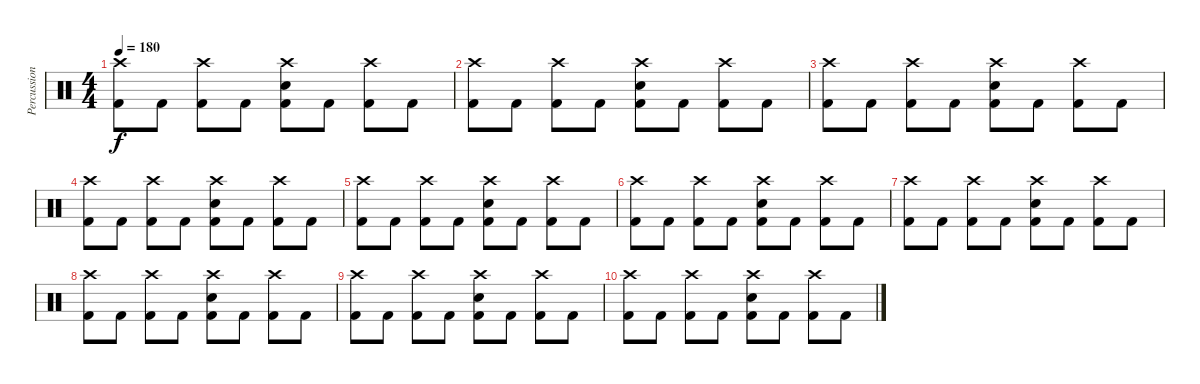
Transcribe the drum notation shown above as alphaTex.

\track ("Percussion" "Percussion") {instrument percussion}
\staff {score}
\articulation defaults
\ts (4 4)
\tempo 180
\clef neutral
\ks c
("Crash high (hit)" "Kick (hit) 2").8{dy f} "Kick (hit) 2".8 ("Crash high (hit)" "Kick (hit) 2").8 "Kick (hit) 2".8 ("Crash high (hit)" "Electric Snare (hit)" "Kick (hit) 2").8 "Kick (hit) 2".8 ("Crash high (hit)" "Kick (hit) 2").8 "Kick (hit) 2".8 |
("Crash high (hit)" "Kick (hit) 2").8 "Kick (hit) 2".8 ("Crash high (hit)" "Kick (hit) 2").8 "Kick (hit) 2".8 ("Crash high (hit)" "Electric Snare (hit)" "Kick (hit) 2").8 "Kick (hit) 2".8 ("Crash high (hit)" "Kick (hit) 2").8 "Kick (hit) 2".8 |
("Crash high (hit)" "Kick (hit) 2").8 "Kick (hit) 2".8 ("Crash high (hit)" "Kick (hit) 2").8 "Kick (hit) 2".8 ("Crash high (hit)" "Electric Snare (hit)" "Kick (hit) 2").8 "Kick (hit) 2".8 ("Crash high (hit)" "Kick (hit) 2").8 "Kick (hit) 2".8 |
("Crash high (hit)" "Kick (hit) 2").8 "Kick (hit) 2".8 ("Crash high (hit)" "Kick (hit) 2").8 "Kick (hit) 2".8 ("Crash high (hit)" "Electric Snare (hit)" "Kick (hit) 2").8 "Kick (hit) 2".8 ("Crash high (hit)" "Kick (hit) 2").8 "Kick (hit) 2".8 |
("Crash high (hit)" "Kick (hit) 2").8 "Kick (hit) 2".8 ("Crash high (hit)" "Kick (hit) 2").8 "Kick (hit) 2".8 ("Crash high (hit)" "Electric Snare (hit)" "Kick (hit) 2").8 "Kick (hit) 2".8 ("Crash high (hit)" "Kick (hit) 2").8 "Kick (hit) 2".8 |
("Crash high (hit)" "Kick (hit) 2").8 "Kick (hit) 2".8 ("Crash high (hit)" "Kick (hit) 2").8 "Kick (hit) 2".8 ("Crash high (hit)" "Electric Snare (hit)" "Kick (hit) 2").8 "Kick (hit) 2".8 ("Crash high (hit)" "Kick (hit) 2").8 "Kick (hit) 2".8 |
("Crash high (hit)" "Kick (hit) 2").8 "Kick (hit) 2".8 ("Crash high (hit)" "Kick (hit) 2").8 "Kick (hit) 2".8 ("Crash high (hit)" "Electric Snare (hit)" "Kick (hit) 2").8 "Kick (hit) 2".8 ("Crash high (hit)" "Kick (hit) 2").8 "Kick (hit) 2".8 |
("Crash high (hit)" "Kick (hit) 2").8 "Kick (hit) 2".8 ("Crash high (hit)" "Kick (hit) 2").8 "Kick (hit) 2".8 ("Crash high (hit)" "Electric Snare (hit)" "Kick (hit) 2").8 "Kick (hit) 2".8 ("Crash high (hit)" "Kick (hit) 2").8 "Kick (hit) 2".8 |
("Crash high (hit)" "Kick (hit) 2").8 "Kick (hit) 2".8 ("Crash high (hit)" "Kick (hit) 2").8 "Kick (hit) 2".8 ("Crash high (hit)" "Electric Snare (hit)" "Kick (hit) 2").8 "Kick (hit) 2".8 ("Crash high (hit)" "Kick (hit) 2").8 "Kick (hit) 2".8 |
("Crash high (hit)" "Kick (hit) 2").8 "Kick (hit) 2".8 ("Crash high (hit)" "Kick (hit) 2").8 "Kick (hit) 2".8 ("Crash high (hit)" "Electric Snare (hit)" "Kick (hit) 2").8 "Kick (hit) 2".8 ("Crash high (hit)" "Kick (hit) 2").8 "Kick (hit) 2".8
